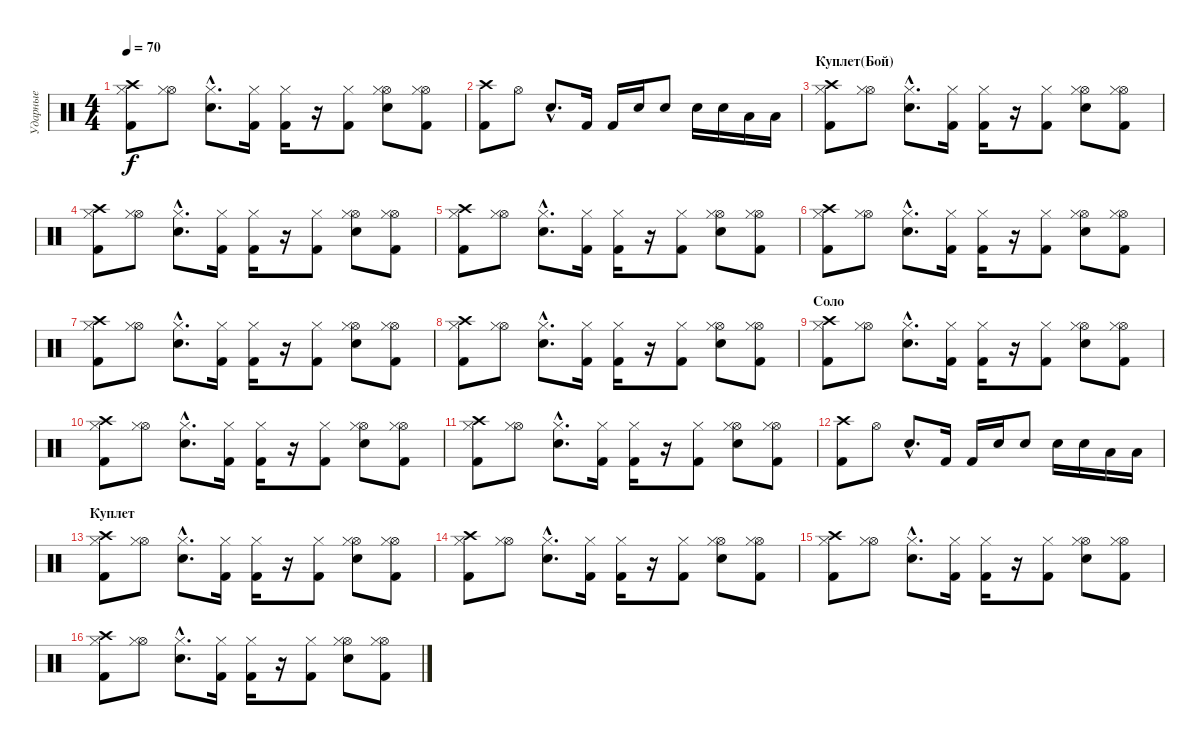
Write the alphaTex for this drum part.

\track ("Ударные" "Ударные") {instrument percussion}
\staff {score}
\articulation defaults
\ts (4 4)
\tempo 70
\clef neutral
\ks c
("Kick (hit) 2" "Crash high (hit)" "Hi-Hat (closed)").8{dy f} ("Hi-Hat (open)" "Hi-Hat (closed)").8 ("Electric Snare (hit)"{hac} "Hi-Hat (closed)"{hac}).8{d} ("Kick (hit) 2" "Hi-Hat (closed)").16 ("Kick (hit) 2" "Hi-Hat (closed)").16 r.16 ("Kick (hit) 2" "Hi-Hat (closed)").8 ("Hi-Hat (open)" "Electric Snare (hit)" "Hi-Hat (closed)").8 ("Hi-Hat (open)" "Kick (hit) 2" "Hi-Hat (closed)").8 |
("Kick (hit) 2" "Crash high (hit)").8 "Hi-Hat (open)".8 "Electric Snare (hit)"{hac}.8{d} "Kick (hit) 2".16 "Kick (hit) 2".16 "Electric Snare (hit)".16 "Electric Snare (hit)".8 "Electric Snare (hit)".16 "Electric Snare (hit)".16 "Low Tom (hit)".16 "Low Tom (hit)".16 |
\section ("" "Куплет(Бой)")
("Kick (hit) 2" "Crash high (hit)" "Hi-Hat (closed)").8 ("Hi-Hat (open)" "Hi-Hat (closed)").8 ("Electric Snare (hit)"{hac} "Hi-Hat (closed)"{hac}).8{d} ("Kick (hit) 2" "Hi-Hat (closed)").16 ("Kick (hit) 2" "Hi-Hat (closed)").16 r.16 ("Kick (hit) 2" "Hi-Hat (closed)").8 ("Hi-Hat (open)" "Electric Snare (hit)" "Hi-Hat (closed)").8 ("Hi-Hat (open)" "Kick (hit) 2" "Hi-Hat (closed)").8 |
("Kick (hit) 2" "Crash high (hit)" "Hi-Hat (closed)").8 ("Hi-Hat (open)" "Hi-Hat (closed)").8 ("Electric Snare (hit)"{hac} "Hi-Hat (closed)"{hac}).8{d} ("Kick (hit) 2" "Hi-Hat (closed)").16 ("Kick (hit) 2" "Hi-Hat (closed)").16 r.16 ("Kick (hit) 2" "Hi-Hat (closed)").8 ("Hi-Hat (open)" "Electric Snare (hit)" "Hi-Hat (closed)").8 ("Hi-Hat (open)" "Kick (hit) 2" "Hi-Hat (closed)").8 |
("Kick (hit) 2" "Crash high (hit)" "Hi-Hat (closed)").8 ("Hi-Hat (open)" "Hi-Hat (closed)").8 ("Electric Snare (hit)"{hac} "Hi-Hat (closed)"{hac}).8{d} ("Kick (hit) 2" "Hi-Hat (closed)").16 ("Kick (hit) 2" "Hi-Hat (closed)").16 r.16 ("Kick (hit) 2" "Hi-Hat (closed)").8 ("Hi-Hat (open)" "Electric Snare (hit)" "Hi-Hat (closed)").8 ("Hi-Hat (open)" "Kick (hit) 2" "Hi-Hat (closed)").8 |
("Kick (hit) 2" "Crash high (hit)" "Hi-Hat (closed)").8 ("Hi-Hat (open)" "Hi-Hat (closed)").8 ("Electric Snare (hit)"{hac} "Hi-Hat (closed)"{hac}).8{d} ("Kick (hit) 2" "Hi-Hat (closed)").16 ("Kick (hit) 2" "Hi-Hat (closed)").16 r.16 ("Kick (hit) 2" "Hi-Hat (closed)").8 ("Hi-Hat (open)" "Electric Snare (hit)" "Hi-Hat (closed)").8 ("Hi-Hat (open)" "Kick (hit) 2" "Hi-Hat (closed)").8 |
("Kick (hit) 2" "Crash high (hit)" "Hi-Hat (closed)").8 ("Hi-Hat (open)" "Hi-Hat (closed)").8 ("Electric Snare (hit)"{hac} "Hi-Hat (closed)"{hac}).8{d} ("Kick (hit) 2" "Hi-Hat (closed)").16 ("Kick (hit) 2" "Hi-Hat (closed)").16 r.16 ("Kick (hit) 2" "Hi-Hat (closed)").8 ("Hi-Hat (open)" "Electric Snare (hit)" "Hi-Hat (closed)").8 ("Hi-Hat (open)" "Kick (hit) 2" "Hi-Hat (closed)").8 |
("Kick (hit) 2" "Crash high (hit)" "Hi-Hat (closed)").8 ("Hi-Hat (open)" "Hi-Hat (closed)").8 ("Electric Snare (hit)"{hac} "Hi-Hat (closed)"{hac}).8{d} ("Kick (hit) 2" "Hi-Hat (closed)").16 ("Kick (hit) 2" "Hi-Hat (closed)").16 r.16 ("Kick (hit) 2" "Hi-Hat (closed)").8 ("Hi-Hat (open)" "Electric Snare (hit)" "Hi-Hat (closed)").8 ("Hi-Hat (open)" "Kick (hit) 2" "Hi-Hat (closed)").8 |
\section ("" "Соло")
("Kick (hit) 2" "Crash high (hit)" "Hi-Hat (closed)").8 ("Hi-Hat (open)" "Hi-Hat (closed)").8 ("Electric Snare (hit)"{hac} "Hi-Hat (closed)"{hac}).8{d} ("Kick (hit) 2" "Hi-Hat (closed)").16 ("Kick (hit) 2" "Hi-Hat (closed)").16 r.16 ("Kick (hit) 2" "Hi-Hat (closed)").8 ("Hi-Hat (open)" "Electric Snare (hit)" "Hi-Hat (closed)").8 ("Hi-Hat (open)" "Kick (hit) 2" "Hi-Hat (closed)").8 |
("Kick (hit) 2" "Crash high (hit)" "Hi-Hat (closed)").8 ("Hi-Hat (open)" "Hi-Hat (closed)").8 ("Electric Snare (hit)"{hac} "Hi-Hat (closed)"{hac}).8{d} ("Kick (hit) 2" "Hi-Hat (closed)").16 ("Kick (hit) 2" "Hi-Hat (closed)").16 r.16 ("Kick (hit) 2" "Hi-Hat (closed)").8 ("Hi-Hat (open)" "Electric Snare (hit)" "Hi-Hat (closed)").8 ("Hi-Hat (open)" "Kick (hit) 2" "Hi-Hat (closed)").8 |
("Kick (hit) 2" "Crash high (hit)" "Hi-Hat (closed)").8 ("Hi-Hat (open)" "Hi-Hat (closed)").8 ("Electric Snare (hit)"{hac} "Hi-Hat (closed)"{hac}).8{d} ("Kick (hit) 2" "Hi-Hat (closed)").16 ("Kick (hit) 2" "Hi-Hat (closed)").16 r.16 ("Kick (hit) 2" "Hi-Hat (closed)").8 ("Hi-Hat (open)" "Electric Snare (hit)" "Hi-Hat (closed)").8 ("Hi-Hat (open)" "Kick (hit) 2" "Hi-Hat (closed)").8 |
("Kick (hit) 2" "Crash high (hit)").8 "Hi-Hat (open)".8 "Electric Snare (hit)"{hac}.8{d} "Kick (hit) 2".16 "Kick (hit) 2".16 "Electric Snare (hit)".16 "Electric Snare (hit)".8 "Electric Snare (hit)".16 "Electric Snare (hit)".16 "Low Tom (hit)".16 "Low Tom (hit)".16 |
\section ("" "Куплет")
("Kick (hit) 2" "Crash high (hit)" "Hi-Hat (closed)").8 ("Hi-Hat (open)" "Hi-Hat (closed)").8 ("Electric Snare (hit)"{hac} "Hi-Hat (closed)"{hac}).8{d} ("Kick (hit) 2" "Hi-Hat (closed)").16 ("Kick (hit) 2" "Hi-Hat (closed)").16 r.16 ("Kick (hit) 2" "Hi-Hat (closed)").8 ("Hi-Hat (open)" "Electric Snare (hit)" "Hi-Hat (closed)").8 ("Hi-Hat (open)" "Kick (hit) 2" "Hi-Hat (closed)").8 |
("Kick (hit) 2" "Crash high (hit)" "Hi-Hat (closed)").8 ("Hi-Hat (open)" "Hi-Hat (closed)").8 ("Electric Snare (hit)"{hac} "Hi-Hat (closed)"{hac}).8{d} ("Kick (hit) 2" "Hi-Hat (closed)").16 ("Kick (hit) 2" "Hi-Hat (closed)").16 r.16 ("Kick (hit) 2" "Hi-Hat (closed)").8 ("Hi-Hat (open)" "Electric Snare (hit)" "Hi-Hat (closed)").8 ("Hi-Hat (open)" "Kick (hit) 2" "Hi-Hat (closed)").8 |
("Kick (hit) 2" "Crash high (hit)" "Hi-Hat (closed)").8 ("Hi-Hat (open)" "Hi-Hat (closed)").8 ("Electric Snare (hit)"{hac} "Hi-Hat (closed)"{hac}).8{d} ("Kick (hit) 2" "Hi-Hat (closed)").16 ("Kick (hit) 2" "Hi-Hat (closed)").16 r.16 ("Kick (hit) 2" "Hi-Hat (closed)").8 ("Hi-Hat (open)" "Electric Snare (hit)" "Hi-Hat (closed)").8 ("Hi-Hat (open)" "Kick (hit) 2" "Hi-Hat (closed)").8 |
("Kick (hit) 2" "Crash high (hit)" "Hi-Hat (closed)").8 ("Hi-Hat (open)" "Hi-Hat (closed)").8 ("Electric Snare (hit)"{hac} "Hi-Hat (closed)"{hac}).8{d} ("Kick (hit) 2" "Hi-Hat (closed)").16 ("Kick (hit) 2" "Hi-Hat (closed)").16 r.16 ("Kick (hit) 2" "Hi-Hat (closed)").8 ("Hi-Hat (open)" "Electric Snare (hit)" "Hi-Hat (closed)").8 ("Hi-Hat (open)" "Kick (hit) 2" "Hi-Hat (closed)").8
